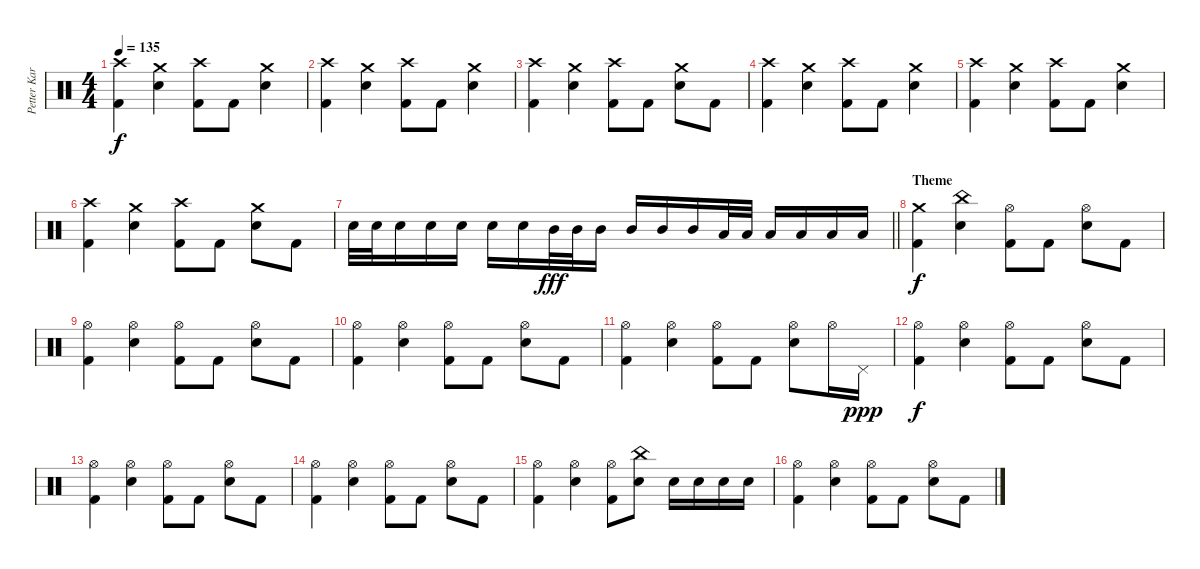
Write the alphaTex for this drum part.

\track ("Petter Karlsson" "Petter Kar") {instrument percussion}
\staff {score}
\articulation defaults
\ts (4 4)
\tempo 135
\clef neutral
\ks c
("Crash high (hit)" "Kick (hit) 2").4{dy f} ("Crash medium (hit)" "Electric Snare (hit)").4 ("Crash high (hit)" "Kick (hit) 2").8 "Kick (hit) 2".8 ("Crash medium (hit)" "Electric Snare (hit)").4 |
("Crash high (hit)" "Kick (hit) 2").4 ("Crash medium (hit)" "Electric Snare (hit)").4 ("Crash high (hit)" "Kick (hit) 2").8 "Kick (hit) 2".8 ("Crash medium (hit)" "Electric Snare (hit)").4 |
("Crash high (hit)" "Kick (hit) 2").4 ("Crash medium (hit)" "Electric Snare (hit)").4 ("Crash high (hit)" "Kick (hit) 2").8 "Kick (hit) 2".8 ("Crash medium (hit)" "Electric Snare (hit)").8 "Kick (hit) 2".8 |
("Crash high (hit)" "Kick (hit) 2").4 ("Crash medium (hit)" "Electric Snare (hit)").4 ("Crash high (hit)" "Kick (hit) 2").8 "Kick (hit) 2".8 ("Crash medium (hit)" "Electric Snare (hit)").4 |
("Crash high (hit)" "Kick (hit) 2").4 ("Crash medium (hit)" "Electric Snare (hit)").4 ("Crash high (hit)" "Kick (hit) 2").8 "Kick (hit) 2".8 ("Crash medium (hit)" "Electric Snare (hit)").4 |
("Crash high (hit)" "Kick (hit) 2").4 ("Crash medium (hit)" "Electric Snare (hit)").4 ("Crash high (hit)" "Kick (hit) 2").8 "Kick (hit) 2".8 ("Crash medium (hit)" "Electric Snare (hit)").8 "Kick (hit) 2".8 |
\barLineRight lightlight "Electric Snare (hit)".32 "Electric Snare (hit)".32 "Electric Snare (hit)".16 "Electric Snare (hit)".16 "Electric Snare (hit)".16 "Electric Snare (hit)".16 "Electric Snare (hit)".16 "Mid Tom (hit)".32{dy fff} "Mid Tom (hit)".32 "Mid Tom (hit)".16 "Mid Tom (hit)".16 "Mid Tom (hit)".16 "Mid Tom (hit)".16 "Low Tom (hit)".32 "Low Tom (hit)".32 "Low Tom (hit)".16 "Low Tom (hit)".16 "Low Tom (hit)".16 "Low Tom (hit)".16
|
\section ("" "Theme")
("Crash medium (hit)" "Kick (hit) 2").4{dy f} ("China (hit)" "Electric Snare (hit)").4 ("Hi-Hat (open)" "Kick (hit) 2").8 "Kick (hit) 2".8 ("Hi-Hat (open)" "Electric Snare (hit)").8 "Kick (hit) 2".8 |
("Hi-Hat (open)" "Kick (hit) 2").4 ("Hi-Hat (open)" "Electric Snare (hit)").4 ("Hi-Hat (open)" "Kick (hit) 2").8 "Kick (hit) 2".8 ("Hi-Hat (open)" "Electric Snare (hit)").8 "Kick (hit) 2".8 |
("Hi-Hat (open)" "Kick (hit) 2").4 ("Hi-Hat (open)" "Electric Snare (hit)").4 ("Hi-Hat (open)" "Kick (hit) 2").8 "Kick (hit) 2".8 ("Hi-Hat (open)" "Electric Snare (hit)").8 "Kick (hit) 2".8 |
("Hi-Hat (open)" "Kick (hit) 2").4 ("Hi-Hat (open)" "Electric Snare (hit)").4 ("Hi-Hat (open)" "Kick (hit) 2").8 "Kick (hit) 2".8 ("Hi-Hat (open)" "Electric Snare (hit)").8 "Hi-Hat (open)".16 "Pedal Hi-Hat (hit)".16{dy ppp} |
("Hi-Hat (open)" "Kick (hit) 2").4{dy f} ("Hi-Hat (open)" "Electric Snare (hit)").4 ("Hi-Hat (open)" "Kick (hit) 2").8 "Kick (hit) 2".8 ("Hi-Hat (open)" "Electric Snare (hit)").8 "Kick (hit) 2".8 |
("Hi-Hat (open)" "Kick (hit) 2").4 ("Hi-Hat (open)" "Electric Snare (hit)").4 ("Hi-Hat (open)" "Kick (hit) 2").8 "Kick (hit) 2".8 ("Hi-Hat (open)" "Electric Snare (hit)").8 "Kick (hit) 2".8 |
("Hi-Hat (open)" "Kick (hit) 2").4 ("Hi-Hat (open)" "Electric Snare (hit)").4 ("Hi-Hat (open)" "Kick (hit) 2").8 "Kick (hit) 2".8 ("Hi-Hat (open)" "Electric Snare (hit)").8 "Kick (hit) 2".8 |
("Hi-Hat (open)" "Kick (hit) 2").4 ("Hi-Hat (open)" "Electric Snare (hit)").4 ("Hi-Hat (open)" "Kick (hit) 2").8 ("China (hit)" "Electric Snare (hit)").8 "Electric Snare (hit)".16 "Electric Snare (hit)".16 "Electric Snare (hit)".16 "Electric Snare (hit)".16 |
("Hi-Hat (open)" "Kick (hit) 2").4 ("Hi-Hat (open)" "Electric Snare (hit)").4 ("Hi-Hat (open)" "Kick (hit) 2").8 "Kick (hit) 2".8 ("Hi-Hat (open)" "Electric Snare (hit)").8 "Kick (hit) 2".8
